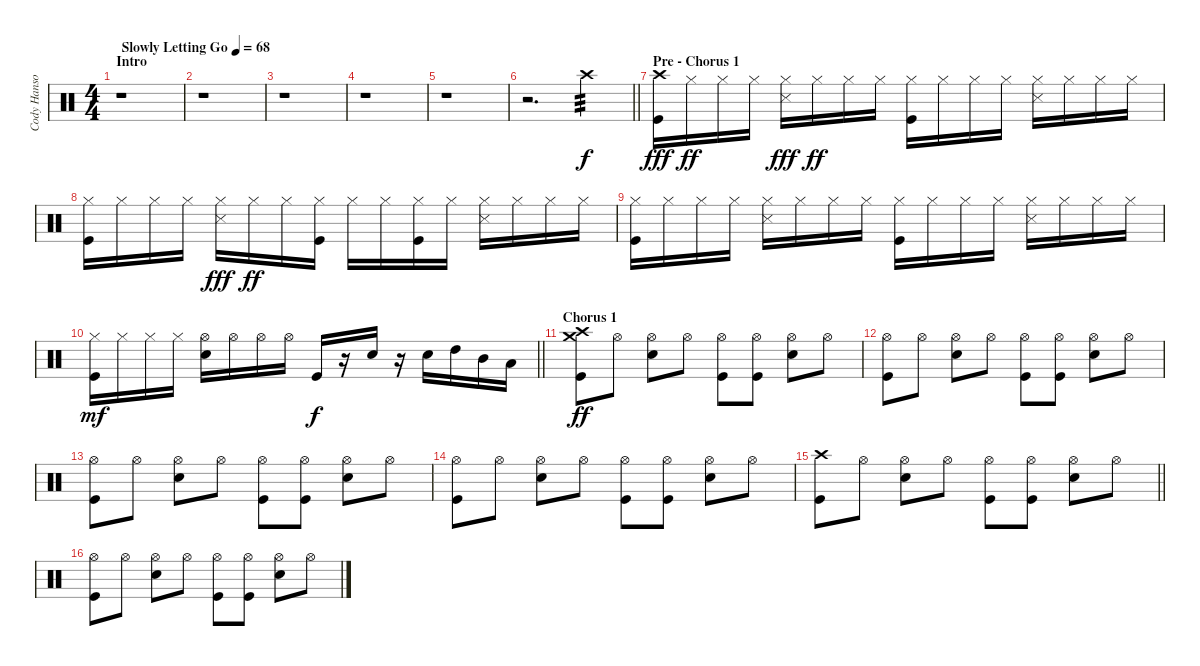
\track ("Cody Hanson (Drums)" "Cody Hanso") {instrument percussion}
\staff {score}
\articulation defaults
\ts (4 4)
\section ("" "Intro")
\tempo (68 "Slowly Letting Go")
\clef neutral
\ks c
r.1{dy f} |
r.1 |
r.1 |
r.1 |
r.1{volume 2} |
\barLineRight lightlight
r.2{d} "Crash high (hit)".4{tp 3 volume 14} |
\section ("" "Pre - Chorus 1")
("Crash high (hit)" "Kick (hit)").16{dy fff} "Hi-Hat (closed)".16{dy ff} "Hi-Hat (closed)".16 "Hi-Hat (closed)".16 ("Hi-Hat (closed)" "Snare (side stick) 3").16{dy fff} "Hi-Hat (closed)".16{dy ff} "Hi-Hat (closed)".16 "Hi-Hat (closed)".16 ("Hi-Hat (closed)" "Kick (hit)").16 "Hi-Hat (closed)".16 "Hi-Hat (closed)".16 "Hi-Hat (closed)".16 ("Hi-Hat (closed)" "Snare (side stick) 3").16 "Hi-Hat (closed)".16 "Hi-Hat (closed)".16 "Hi-Hat (closed)".16 |
("Hi-Hat (closed)" "Kick (hit)").16 "Hi-Hat (closed)".16 "Hi-Hat (closed)".16 "Hi-Hat (closed)".16 ("Hi-Hat (closed)" "Snare (side stick) 3").16{dy fff} "Hi-Hat (closed)".16{dy ff} "Hi-Hat (closed)".16 ("Hi-Hat (closed)" "Kick (hit)").16 "Hi-Hat (closed)".16 "Hi-Hat (closed)".16 ("Hi-Hat (closed)" "Kick (hit)").16 "Hi-Hat (closed)".16 ("Hi-Hat (closed)" "Snare (side stick) 3").16 "Hi-Hat (closed)".16 "Hi-Hat (closed)".16 "Hi-Hat (closed)".16 |
("Hi-Hat (closed)" "Kick (hit)").16 "Hi-Hat (closed)".16 "Hi-Hat (closed)".16 "Hi-Hat (closed)".16 ("Hi-Hat (closed)" "Snare (side stick) 3").16 "Hi-Hat (closed)".16 "Hi-Hat (closed)".16 "Hi-Hat (closed)".16 ("Hi-Hat (closed)" "Kick (hit)").16 "Hi-Hat (closed)".16 "Hi-Hat (closed)".16 "Hi-Hat (closed)".16 ("Hi-Hat (closed)" "Snare (side stick) 3").16 "Hi-Hat (closed)".16 "Hi-Hat (closed)".16 "Hi-Hat (closed)".16 |
\barLineRight lightlight
("Hi-Hat (closed)" "Kick (hit)").16{dy mf} "Hi-Hat (closed)".16 "Hi-Hat (closed)".16 "Hi-Hat (closed)".16 ("Hi-Hat (open)" "Snare (hit) 2").16 "Hi-Hat (open)".16 "Hi-Hat (open)".16 "Hi-Hat (open)".16 "Kick (hit)".16{dy f} r.16 "Snare (hit) 2".16 r.16 "Snare (hit) 2".16 "High Tom (hit)".16 "Mid Tom (hit)".16 "Low Tom (hit)".16 |
\section ("" "Chorus 1")
("Crash high (hit)" "Crash medium (hit)" "Kick (hit)").8{dy ff} "Hi-Hat (open)".8 ("Hi-Hat (open)" "Snare (hit) 2").8 "Hi-Hat (open)".8 ("Hi-Hat (open)" "Kick (hit)").8 ("Hi-Hat (open)" "Kick (hit)").8 ("Hi-Hat (open)" "Snare (hit) 2").8 "Hi-Hat (open)".8 |
("Hi-Hat (open)" "Kick (hit)").8 "Hi-Hat (open)".8 ("Hi-Hat (open)" "Snare (hit) 2").8 "Hi-Hat (open)".8 ("Hi-Hat (open)" "Kick (hit)").8 ("Hi-Hat (open)" "Kick (hit)").8 ("Hi-Hat (open)" "Snare (hit) 2").8 "Hi-Hat (open)".8 |
("Hi-Hat (open)" "Kick (hit)").8 "Hi-Hat (open)".8 ("Hi-Hat (open)" "Snare (hit) 2").8 "Hi-Hat (open)".8 ("Hi-Hat (open)" "Kick (hit)").8 ("Hi-Hat (open)" "Kick (hit)").8 ("Hi-Hat (open)" "Snare (hit) 2").8 "Hi-Hat (open)".8 |
("Hi-Hat (open)" "Kick (hit)").8 "Hi-Hat (open)".8 ("Hi-Hat (open)" "Snare (hit) 2").8 "Hi-Hat (open)".8 ("Hi-Hat (open)" "Kick (hit)").8 ("Hi-Hat (open)" "Kick (hit)").8 ("Hi-Hat (open)" "Snare (hit) 2").8 "Hi-Hat (open)".8 |
\barLineRight lightlight
("Crash high (hit)" "Kick (hit)").8 "Hi-Hat (open)".8 ("Hi-Hat (open)" "Snare (hit) 2").8 "Hi-Hat (open)".8 ("Hi-Hat (open)" "Kick (hit)").8 ("Hi-Hat (open)" "Kick (hit)").8 ("Hi-Hat (open)" "Snare (hit) 2").8 "Hi-Hat (open)".8 |
("Hi-Hat (open)" "Kick (hit)").8 "Hi-Hat (open)".8 ("Hi-Hat (open)" "Snare (hit) 2").8 "Hi-Hat (open)".8 ("Hi-Hat (open)" "Kick (hit)").8 ("Hi-Hat (open)" "Kick (hit)").8 ("Hi-Hat (open)" "Snare (hit) 2").8 "Hi-Hat (open)".8
